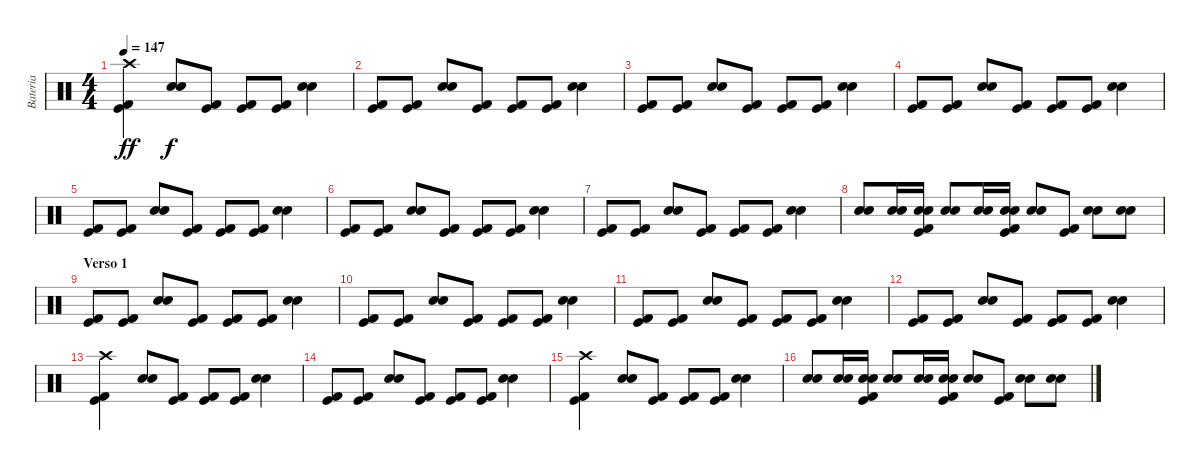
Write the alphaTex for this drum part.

\track ("Bateria" "Bateria") {instrument percussion}
\staff {score}
\articulation defaults
\ts (4 4)
\tempo 147
\clef neutral
\ks c
("Crash high (hit)" "Kick (hit)" "Kick (hit) 2").4{dy ff} ("Snare (hit) 2" "Electric Snare (hit)").8{dy f} ("Kick (hit)" "Kick (hit) 2").8 ("Kick (hit)" "Kick (hit) 2").8 ("Kick (hit)" "Kick (hit) 2").8 ("Snare (hit) 2" "Electric Snare (hit)").4 |
("Kick (hit)" "Kick (hit) 2").8 ("Kick (hit)" "Kick (hit) 2").8 ("Snare (hit) 2" "Electric Snare (hit)").8 ("Kick (hit)" "Kick (hit) 2").8 ("Kick (hit)" "Kick (hit) 2").8 ("Kick (hit)" "Kick (hit) 2").8 ("Snare (hit) 2" "Electric Snare (hit)").4 |
("Kick (hit)" "Kick (hit) 2").8 ("Kick (hit)" "Kick (hit) 2").8 ("Snare (hit) 2" "Electric Snare (hit)").8 ("Kick (hit)" "Kick (hit) 2").8 ("Kick (hit)" "Kick (hit) 2").8 ("Kick (hit)" "Kick (hit) 2").8 ("Snare (hit) 2" "Electric Snare (hit)").4 |
("Kick (hit)" "Kick (hit) 2").8 ("Kick (hit)" "Kick (hit) 2").8 ("Snare (hit) 2" "Electric Snare (hit)").8 ("Kick (hit)" "Kick (hit) 2").8 ("Kick (hit)" "Kick (hit) 2").8 ("Kick (hit)" "Kick (hit) 2").8 ("Snare (hit) 2" "Electric Snare (hit)").4 |
("Kick (hit)" "Kick (hit) 2").8 ("Kick (hit)" "Kick (hit) 2").8 ("Snare (hit) 2" "Electric Snare (hit)").8 ("Kick (hit)" "Kick (hit) 2").8 ("Kick (hit)" "Kick (hit) 2").8 ("Kick (hit)" "Kick (hit) 2").8 ("Snare (hit) 2" "Electric Snare (hit)").4 |
("Kick (hit)" "Kick (hit) 2").8 ("Kick (hit)" "Kick (hit) 2").8 ("Snare (hit) 2" "Electric Snare (hit)").8 ("Kick (hit)" "Kick (hit) 2").8 ("Kick (hit)" "Kick (hit) 2").8 ("Kick (hit)" "Kick (hit) 2").8 ("Snare (hit) 2" "Electric Snare (hit)").4 |
("Kick (hit)" "Kick (hit) 2").8 ("Kick (hit)" "Kick (hit) 2").8 ("Snare (hit) 2" "Electric Snare (hit)").8 ("Kick (hit)" "Kick (hit) 2").8 ("Kick (hit)" "Kick (hit) 2").8 ("Kick (hit)" "Kick (hit) 2").8 ("Snare (hit) 2" "Electric Snare (hit)").4 |
("Snare (hit) 2" "Electric Snare (hit)").8 ("Snare (hit) 2" "Electric Snare (hit)").16 ("Snare (hit) 2" "Electric Snare (hit)" "Kick (hit)" "Kick (hit) 2").16 ("Snare (hit) 2" "Electric Snare (hit)").8 ("Snare (hit) 2" "Electric Snare (hit)").16 ("Snare (hit) 2" "Electric Snare (hit)" "Kick (hit)" "Kick (hit) 2").16 ("Snare (hit) 2" "Electric Snare (hit)").8 ("Kick (hit)" "Kick (hit) 2").8 ("Snare (hit) 2" "Electric Snare (hit)").8 ("Snare (hit) 2" "Electric Snare (hit)").8 |
\section ("" "Verso 1")
("Kick (hit)" "Kick (hit) 2").8 ("Kick (hit)" "Kick (hit) 2").8 ("Snare (hit) 2" "Electric Snare (hit)").8 ("Kick (hit)" "Kick (hit) 2").8 ("Kick (hit)" "Kick (hit) 2").8 ("Kick (hit)" "Kick (hit) 2").8 ("Snare (hit) 2" "Electric Snare (hit)").4 |
("Kick (hit)" "Kick (hit) 2").8 ("Kick (hit)" "Kick (hit) 2").8 ("Snare (hit) 2" "Electric Snare (hit)").8 ("Kick (hit)" "Kick (hit) 2").8 ("Kick (hit)" "Kick (hit) 2").8 ("Kick (hit)" "Kick (hit) 2").8 ("Snare (hit) 2" "Electric Snare (hit)").4 |
("Kick (hit)" "Kick (hit) 2").8 ("Kick (hit)" "Kick (hit) 2").8 ("Snare (hit) 2" "Electric Snare (hit)").8 ("Kick (hit)" "Kick (hit) 2").8 ("Kick (hit)" "Kick (hit) 2").8 ("Kick (hit)" "Kick (hit) 2").8 ("Snare (hit) 2" "Electric Snare (hit)").4 |
("Kick (hit)" "Kick (hit) 2").8 ("Kick (hit)" "Kick (hit) 2").8 ("Snare (hit) 2" "Electric Snare (hit)").8 ("Kick (hit)" "Kick (hit) 2").8 ("Kick (hit)" "Kick (hit) 2").8 ("Kick (hit)" "Kick (hit) 2").8 ("Snare (hit) 2" "Electric Snare (hit)").4 |
("Crash high (hit)" "Kick (hit)" "Kick (hit) 2").4 ("Snare (hit) 2" "Electric Snare (hit)").8 ("Kick (hit)" "Kick (hit) 2").8 ("Kick (hit)" "Kick (hit) 2").8 ("Kick (hit)" "Kick (hit) 2").8 ("Snare (hit) 2" "Electric Snare (hit)").4 |
("Kick (hit)" "Kick (hit) 2").8 ("Kick (hit)" "Kick (hit) 2").8 ("Snare (hit) 2" "Electric Snare (hit)").8 ("Kick (hit)" "Kick (hit) 2").8 ("Kick (hit)" "Kick (hit) 2").8 ("Kick (hit)" "Kick (hit) 2").8 ("Snare (hit) 2" "Electric Snare (hit)").4 |
("Crash high (hit)" "Kick (hit)" "Kick (hit) 2").4 ("Snare (hit) 2" "Electric Snare (hit)").8 ("Kick (hit)" "Kick (hit) 2").8 ("Kick (hit)" "Kick (hit) 2").8 ("Kick (hit)" "Kick (hit) 2").8 ("Snare (hit) 2" "Electric Snare (hit)").4 |
("Snare (hit) 2" "Electric Snare (hit)").8 ("Snare (hit) 2" "Electric Snare (hit)").16 ("Snare (hit) 2" "Electric Snare (hit)" "Kick (hit)" "Kick (hit) 2").16 ("Snare (hit) 2" "Electric Snare (hit)").8 ("Snare (hit) 2" "Electric Snare (hit)").16 ("Snare (hit) 2" "Electric Snare (hit)" "Kick (hit)" "Kick (hit) 2").16 ("Snare (hit) 2" "Electric Snare (hit)").8 ("Kick (hit)" "Kick (hit) 2").8 ("Snare (hit) 2" "Electric Snare (hit)").8 ("Snare (hit) 2" "Electric Snare (hit)").8
